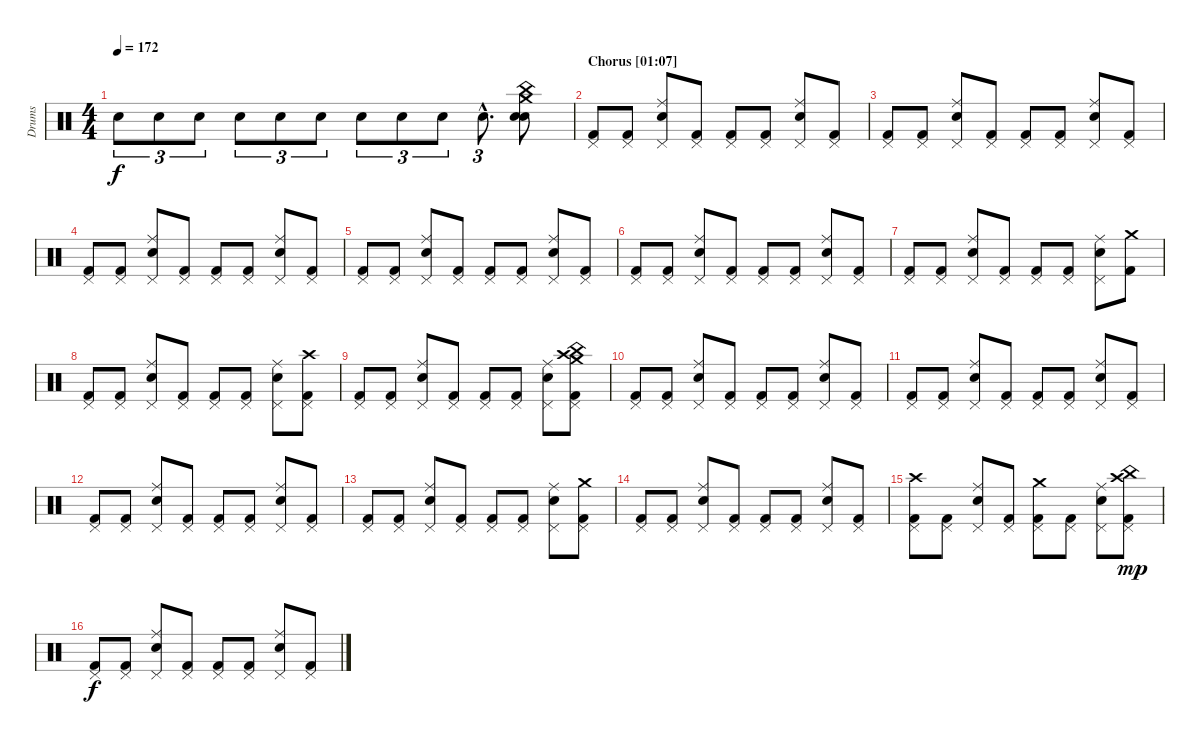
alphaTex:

\track ("Drums" "Drums") {instrument percussion}
\staff {score}
\articulation defaults
\ts (4 4)
\tempo 172
\clef neutral
\ks c "Electric Snare (hit)".8{tu (3 2) dy f} "Electric Snare (hit)".8{tu (3 2)} "Electric Snare (hit)".8{tu (3 2)} "Electric Snare (hit)".8{tu (3 2)} "Electric Snare (hit)".8{tu (3 2)} "Electric Snare (hit)".8{tu (3 2)} "Electric Snare (hit)".8{tu (3 2)} "Electric Snare (hit)".8{tu (3 2)} "Electric Snare (hit)".8{tu (3 2)} "Electric Snare (hit)"{hac}.8{d tu (3 2)}
("Crash medium (hit)" "China (hit)" "Snare (hit) 2" "Electric Snare (hit)").8 |
\section ("" "Chorus [01:07]")
("Pedal Hi-Hat (hit)" "Kick (hit) 2").8 ("Pedal Hi-Hat (hit)" "Kick (hit) 2").8 ("Pedal Hi-Hat (hit)" "Ride (middle)" "Electric Snare (hit)").8 ("Pedal Hi-Hat (hit)" "Kick (hit) 2").8 ("Pedal Hi-Hat (hit)" "Kick (hit) 2").8 ("Pedal Hi-Hat (hit)" "Kick (hit) 2").8 ("Pedal Hi-Hat (hit)" "Ride (middle)" "Electric Snare (hit)").8 ("Pedal Hi-Hat (hit)" "Kick (hit) 2").8 |
("Pedal Hi-Hat (hit)" "Kick (hit) 2").8 ("Pedal Hi-Hat (hit)" "Kick (hit) 2").8 ("Pedal Hi-Hat (hit)" "Ride (middle)" "Electric Snare (hit)").8 ("Pedal Hi-Hat (hit)" "Kick (hit) 2").8 ("Pedal Hi-Hat (hit)" "Kick (hit) 2").8 ("Pedal Hi-Hat (hit)" "Kick (hit) 2").8 ("Pedal Hi-Hat (hit)" "Ride (middle)" "Electric Snare (hit)").8 ("Pedal Hi-Hat (hit)" "Kick (hit) 2").8 |
("Pedal Hi-Hat (hit)" "Kick (hit) 2").8 ("Pedal Hi-Hat (hit)" "Kick (hit) 2").8 ("Pedal Hi-Hat (hit)" "Ride (middle)" "Electric Snare (hit)").8 ("Pedal Hi-Hat (hit)" "Kick (hit) 2").8 ("Pedal Hi-Hat (hit)" "Kick (hit) 2").8 ("Pedal Hi-Hat (hit)" "Kick (hit) 2").8 ("Pedal Hi-Hat (hit)" "Ride (middle)" "Electric Snare (hit)").8 ("Pedal Hi-Hat (hit)" "Kick (hit) 2").8 |
("Pedal Hi-Hat (hit)" "Kick (hit) 2").8 ("Pedal Hi-Hat (hit)" "Kick (hit) 2").8 ("Pedal Hi-Hat (hit)" "Ride (middle)" "Electric Snare (hit)").8 ("Pedal Hi-Hat (hit)" "Kick (hit) 2").8 ("Pedal Hi-Hat (hit)" "Kick (hit) 2").8 ("Pedal Hi-Hat (hit)" "Kick (hit) 2").8 ("Pedal Hi-Hat (hit)" "Ride (middle)" "Electric Snare (hit)").8 ("Pedal Hi-Hat (hit)" "Kick (hit) 2").8 |
("Pedal Hi-Hat (hit)" "Kick (hit) 2").8 ("Pedal Hi-Hat (hit)" "Kick (hit) 2").8 ("Pedal Hi-Hat (hit)" "Ride (middle)" "Electric Snare (hit)").8 ("Pedal Hi-Hat (hit)" "Kick (hit) 2").8 ("Pedal Hi-Hat (hit)" "Kick (hit) 2").8 ("Pedal Hi-Hat (hit)" "Kick (hit) 2").8 ("Pedal Hi-Hat (hit)" "Ride (middle)" "Electric Snare (hit)").8 ("Pedal Hi-Hat (hit)" "Kick (hit) 2").8 |
("Pedal Hi-Hat (hit)" "Kick (hit) 2").8 ("Pedal Hi-Hat (hit)" "Kick (hit) 2").8 ("Pedal Hi-Hat (hit)" "Ride (middle)" "Electric Snare (hit)").8 ("Pedal Hi-Hat (hit)" "Kick (hit) 2").8 ("Pedal Hi-Hat (hit)" "Kick (hit) 2").8 ("Pedal Hi-Hat (hit)" "Kick (hit) 2").8 ("Pedal Hi-Hat (hit)" "Ride (middle)" "Electric Snare (hit)").8 ("Crash medium (hit)" "Kick (hit) 2").8 |
("Pedal Hi-Hat (hit)" "Kick (hit) 2").8 ("Pedal Hi-Hat (hit)" "Kick (hit) 2").8 ("Pedal Hi-Hat (hit)" "Ride (middle)" "Electric Snare (hit)").8 ("Pedal Hi-Hat (hit)" "Kick (hit) 2").8 ("Pedal Hi-Hat (hit)" "Kick (hit) 2").8 ("Pedal Hi-Hat (hit)" "Kick (hit) 2").8 ("Pedal Hi-Hat (hit)" "Ride (middle)" "Electric Snare (hit)").8 ("Pedal Hi-Hat (hit)" "Crash high (hit)" "Kick (hit) 2").8 |
("Pedal Hi-Hat (hit)" "Kick (hit) 2").8 ("Pedal Hi-Hat (hit)" "Kick (hit) 2").8 ("Pedal Hi-Hat (hit)" "Ride (middle)" "Electric Snare (hit)").8 ("Pedal Hi-Hat (hit)" "Kick (hit) 2").8 ("Pedal Hi-Hat (hit)" "Kick (hit) 2").8 ("Pedal Hi-Hat (hit)" "Kick (hit) 2").8 ("Pedal Hi-Hat (hit)" "Ride (middle)" "Electric Snare (hit)").8 ("Pedal Hi-Hat (hit)" "China (hit)" "Crash medium (hit)" "Crash high (hit)" "Kick (hit) 2").8 |
\section ("" "")
("Pedal Hi-Hat (hit)" "Kick (hit) 2").8 ("Pedal Hi-Hat (hit)" "Kick (hit) 2").8 ("Pedal Hi-Hat (hit)" "Ride (middle)" "Electric Snare (hit)").8 ("Pedal Hi-Hat (hit)" "Kick (hit) 2").8 ("Pedal Hi-Hat (hit)" "Kick (hit) 2").8 ("Pedal Hi-Hat (hit)" "Kick (hit) 2").8 ("Pedal Hi-Hat (hit)" "Ride (middle)" "Electric Snare (hit)").8 ("Pedal Hi-Hat (hit)" "Kick (hit) 2").8 |
("Pedal Hi-Hat (hit)" "Kick (hit) 2").8 ("Pedal Hi-Hat (hit)" "Kick (hit) 2").8 ("Pedal Hi-Hat (hit)" "Ride (middle)" "Electric Snare (hit)").8 ("Pedal Hi-Hat (hit)" "Kick (hit) 2").8 ("Pedal Hi-Hat (hit)" "Kick (hit) 2").8 ("Pedal Hi-Hat (hit)" "Kick (hit) 2").8 ("Pedal Hi-Hat (hit)" "Ride (middle)" "Electric Snare (hit)").8 ("Pedal Hi-Hat (hit)" "Kick (hit) 2").8 |
("Pedal Hi-Hat (hit)" "Kick (hit) 2").8 ("Pedal Hi-Hat (hit)" "Kick (hit) 2").8 ("Pedal Hi-Hat (hit)" "Ride (middle)" "Electric Snare (hit)").8 ("Pedal Hi-Hat (hit)" "Kick (hit) 2").8 ("Pedal Hi-Hat (hit)" "Kick (hit) 2").8 ("Pedal Hi-Hat (hit)" "Kick (hit) 2").8 ("Pedal Hi-Hat (hit)" "Ride (middle)" "Electric Snare (hit)").8 ("Pedal Hi-Hat (hit)" "Kick (hit) 2").8 |
("Pedal Hi-Hat (hit)" "Kick (hit) 2").8 ("Pedal Hi-Hat (hit)" "Kick (hit) 2").8 ("Pedal Hi-Hat (hit)" "Ride (middle)" "Electric Snare (hit)").8 ("Pedal Hi-Hat (hit)" "Kick (hit) 2").8 ("Pedal Hi-Hat (hit)" "Kick (hit) 2").8 ("Pedal Hi-Hat (hit)" "Kick (hit) 2").8 ("Pedal Hi-Hat (hit)" "Ride (middle)" "Electric Snare (hit)").8 ("Pedal Hi-Hat (hit)" "Crash medium (hit)" "Kick (hit) 2").8 |
("Pedal Hi-Hat (hit)" "Kick (hit) 2").8 ("Pedal Hi-Hat (hit)" "Kick (hit) 2").8 ("Pedal Hi-Hat (hit)" "Ride (middle)" "Electric Snare (hit)").8 ("Pedal Hi-Hat (hit)" "Kick (hit) 2").8 ("Pedal Hi-Hat (hit)" "Kick (hit) 2").8 ("Pedal Hi-Hat (hit)" "Kick (hit) 2").8 ("Pedal Hi-Hat (hit)" "Ride (middle)" "Electric Snare (hit)").8 ("Pedal Hi-Hat (hit)" "Kick (hit) 2").8 |
("Pedal Hi-Hat (hit)" "Crash high (hit)" "Kick (hit) 2").8 ("Pedal Hi-Hat (hit)" "Kick (hit) 2").8 ("Pedal Hi-Hat (hit)" "Ride (middle)" "Electric Snare (hit)").8 ("Pedal Hi-Hat (hit)" "Kick (hit) 2").8 ("Pedal Hi-Hat (hit)" "Crash medium (hit)" "Kick (hit) 2").8 ("Pedal Hi-Hat (hit)" "Kick (hit) 2").8 ("Pedal Hi-Hat (hit)" "Ride (middle)" "Electric Snare (hit)").8 ("Pedal Hi-Hat (hit)" "Crash high (hit)" "China (hit)" "Kick (hit) 2").8{dy mp} |
("Pedal Hi-Hat (hit)" "Kick (hit) 2").8{dy f} ("Pedal Hi-Hat (hit)" "Kick (hit) 2").8 ("Pedal Hi-Hat (hit)" "Ride (middle)" "Electric Snare (hit)").8 ("Pedal Hi-Hat (hit)" "Kick (hit) 2").8 ("Pedal Hi-Hat (hit)" "Kick (hit) 2").8 ("Pedal Hi-Hat (hit)" "Kick (hit) 2").8 ("Pedal Hi-Hat (hit)" "Ride (middle)" "Electric Snare (hit)").8 ("Pedal Hi-Hat (hit)" "Kick (hit) 2").8
